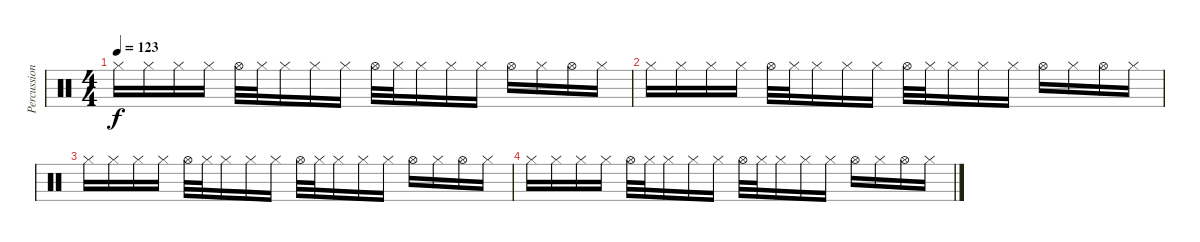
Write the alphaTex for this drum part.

\track ("Percussion" "Percussion") {instrument percussion}
\staff {score}
\articulation defaults
\ts (4 4)
\tempo 123
\clef neutral
\ks c "Hi-Hat (closed)".16{dy f} "Hi-Hat (closed)".16 "Hi-Hat (closed)".16 "Hi-Hat (closed)".16 "Hi-Hat (open)".32 "Hi-Hat (closed)".32 "Hi-Hat (closed)".16 "Hi-Hat (closed)".16 "Hi-Hat (closed)".16 "Hi-Hat (open)".32 "Hi-Hat (closed)".32 "Hi-Hat (closed)".16 "Hi-Hat (closed)".16 "Hi-Hat (closed)".16 "Hi-Hat (open)".16 "Hi-Hat (closed)".16 "Hi-Hat (open)".16 "Hi-Hat (closed)".16
|
"Hi-Hat (closed)".16 "Hi-Hat (closed)".16 "Hi-Hat (closed)".16 "Hi-Hat (closed)".16 "Hi-Hat (open)".32 "Hi-Hat (closed)".32 "Hi-Hat (closed)".16 "Hi-Hat (closed)".16 "Hi-Hat (closed)".16 "Hi-Hat (open)".32 "Hi-Hat (closed)".32 "Hi-Hat (closed)".16 "Hi-Hat (closed)".16 "Hi-Hat (closed)".16 "Hi-Hat (open)".16 "Hi-Hat (closed)".16 "Hi-Hat (open)".16 "Hi-Hat (closed)".16 |
"Hi-Hat (closed)".16 "Hi-Hat (closed)".16 "Hi-Hat (closed)".16 "Hi-Hat (closed)".16 "Hi-Hat (open)".32 "Hi-Hat (closed)".32 "Hi-Hat (closed)".16 "Hi-Hat (closed)".16 "Hi-Hat (closed)".16 "Hi-Hat (open)".32 "Hi-Hat (closed)".32 "Hi-Hat (closed)".16 "Hi-Hat (closed)".16 "Hi-Hat (closed)".16 "Hi-Hat (open)".16 "Hi-Hat (closed)".16 "Hi-Hat (open)".16 "Hi-Hat (closed)".16 |
"Hi-Hat (closed)".16 "Hi-Hat (closed)".16 "Hi-Hat (closed)".16 "Hi-Hat (closed)".16 "Hi-Hat (open)".32 "Hi-Hat (closed)".32 "Hi-Hat (closed)".16 "Hi-Hat (closed)".16 "Hi-Hat (closed)".16 "Hi-Hat (open)".32 "Hi-Hat (closed)".32 "Hi-Hat (closed)".16 "Hi-Hat (closed)".16 "Hi-Hat (closed)".16 "Hi-Hat (open)".16 "Hi-Hat (closed)".16 "Hi-Hat (open)".16 "Hi-Hat (closed)".16
